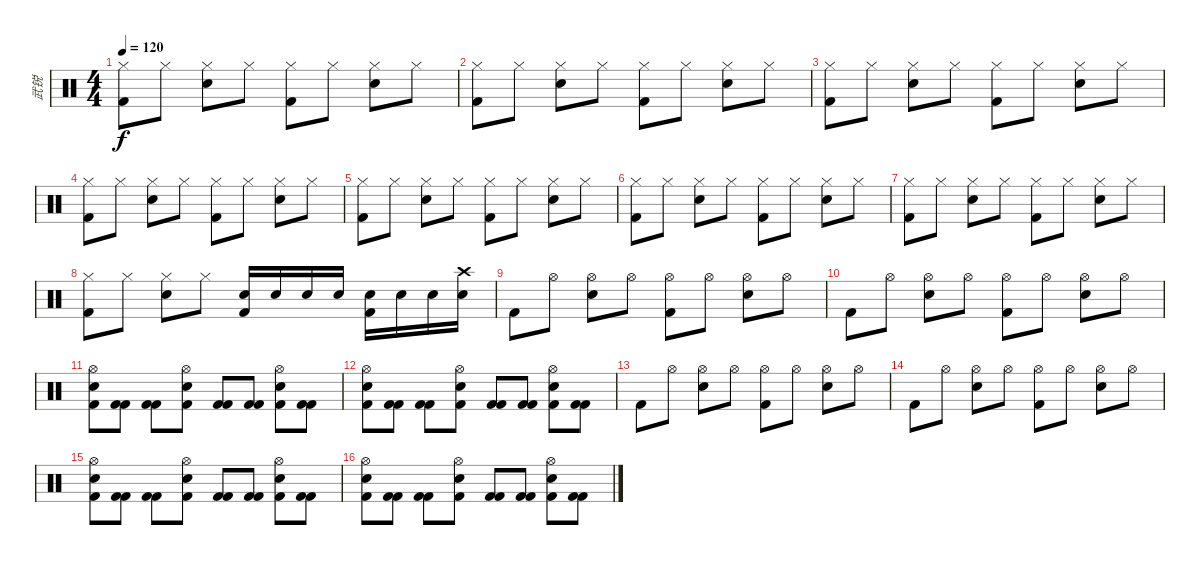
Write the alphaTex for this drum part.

\track ("武锐" "武锐") {instrument percussion}
\staff {score}
\articulation defaults
\ts (4 4)
\tempo 120
\clef neutral
\ks c
("Hi-Hat (closed)" "Kick (hit) 2").8{dy f} "Hi-Hat (closed)".8 ("Hi-Hat (closed)" "Snare (hit) 2").8 "Hi-Hat (closed)".8 ("Hi-Hat (closed)" "Kick (hit) 2").8 "Hi-Hat (closed)".8 ("Hi-Hat (closed)" "Snare (hit) 2").8 "Hi-Hat (closed)".8 |
("Hi-Hat (closed)" "Kick (hit) 2").8 "Hi-Hat (closed)".8 ("Hi-Hat (closed)" "Snare (hit) 2").8 "Hi-Hat (closed)".8 ("Hi-Hat (closed)" "Kick (hit) 2").8 "Hi-Hat (closed)".8 ("Hi-Hat (closed)" "Snare (hit) 2").8 "Hi-Hat (closed)".8 |
("Hi-Hat (closed)" "Kick (hit) 2").8 "Hi-Hat (closed)".8 ("Hi-Hat (closed)" "Snare (hit) 2").8 "Hi-Hat (closed)".8 ("Hi-Hat (closed)" "Kick (hit) 2").8 "Hi-Hat (closed)".8 ("Hi-Hat (closed)" "Snare (hit) 2").8 "Hi-Hat (closed)".8 |
("Hi-Hat (closed)" "Kick (hit) 2").8 "Hi-Hat (closed)".8 ("Hi-Hat (closed)" "Snare (hit) 2").8 "Hi-Hat (closed)".8 ("Hi-Hat (closed)" "Kick (hit) 2").8 "Hi-Hat (closed)".8 ("Hi-Hat (closed)" "Snare (hit) 2").8 "Hi-Hat (closed)".8 |
("Hi-Hat (closed)" "Kick (hit) 2").8 "Hi-Hat (closed)".8 ("Hi-Hat (closed)" "Snare (hit) 2").8 "Hi-Hat (closed)".8 ("Hi-Hat (closed)" "Kick (hit) 2").8 "Hi-Hat (closed)".8 ("Hi-Hat (closed)" "Snare (hit) 2").8 "Hi-Hat (closed)".8 |
("Hi-Hat (closed)" "Kick (hit) 2").8 "Hi-Hat (closed)".8 ("Hi-Hat (closed)" "Snare (hit) 2").8 "Hi-Hat (closed)".8 ("Hi-Hat (closed)" "Kick (hit) 2").8 "Hi-Hat (closed)".8 ("Hi-Hat (closed)" "Snare (hit) 2").8 "Hi-Hat (closed)".8 |
("Hi-Hat (closed)" "Kick (hit) 2").8 "Hi-Hat (closed)".8 ("Hi-Hat (closed)" "Snare (hit) 2").8 "Hi-Hat (closed)".8 ("Hi-Hat (closed)" "Kick (hit) 2").8 "Hi-Hat (closed)".8 ("Hi-Hat (closed)" "Snare (hit) 2").8 "Hi-Hat (closed)".8 |
("Hi-Hat (closed)" "Kick (hit) 2").8 "Hi-Hat (closed)".8 ("Hi-Hat (closed)" "Snare (hit) 2").8 "Hi-Hat (closed)".8 ("Snare (hit) 2" "Kick (hit) 2").16 "Snare (hit) 2".16 "Snare (hit) 2".16 "Snare (hit) 2".16 ("Snare (hit) 2" "Kick (hit) 2").16 "Snare (hit) 2".16 "Snare (hit) 2".16 ("Crash high (hit)" "Snare (hit) 2").16 |
"Kick (hit) 2".8 "Hi-Hat (open)".8 ("Hi-Hat (open)" "Snare (hit) 2").8 "Hi-Hat (open)".8 ("Hi-Hat (open)" "Kick (hit) 2").8 "Hi-Hat (open)".8 ("Hi-Hat (open)" "Snare (hit) 2").8 "Hi-Hat (open)".8 |
"Kick (hit) 2".8 "Hi-Hat (open)".8 ("Hi-Hat (open)" "Snare (hit) 2").8 "Hi-Hat (open)".8 ("Hi-Hat (open)" "Kick (hit) 2").8 "Hi-Hat (open)".8 ("Hi-Hat (open)" "Snare (hit) 2").8 "Hi-Hat (open)".8 |
("Hi-Hat (open)" "Snare (hit) 2" "Kick (hit) 2").8 ("Kick (hit) 2" "Kick (hit) 2").8 ("Kick (hit) 2" "Kick (hit) 2").8 ("Hi-Hat (open)" "Snare (hit) 2" "Kick (hit) 2").8 ("Kick (hit) 2" "Kick (hit) 2").8 ("Kick (hit) 2" "Kick (hit) 2").8 ("Hi-Hat (open)" "Snare (hit) 2" "Kick (hit) 2").8 ("Kick (hit) 2" "Kick (hit) 2").8 |
("Hi-Hat (open)" "Snare (hit) 2" "Kick (hit) 2").8 ("Kick (hit) 2" "Kick (hit) 2").8 ("Kick (hit) 2" "Kick (hit) 2").8 ("Hi-Hat (open)" "Snare (hit) 2" "Kick (hit) 2").8 ("Kick (hit) 2" "Kick (hit) 2").8 ("Kick (hit) 2" "Kick (hit) 2").8 ("Hi-Hat (open)" "Snare (hit) 2" "Kick (hit) 2").8 ("Kick (hit) 2" "Kick (hit) 2").8 |
"Kick (hit) 2".8 "Hi-Hat (open)".8 ("Hi-Hat (open)" "Snare (hit) 2").8 "Hi-Hat (open)".8 ("Hi-Hat (open)" "Kick (hit) 2").8 "Hi-Hat (open)".8 ("Hi-Hat (open)" "Snare (hit) 2").8 "Hi-Hat (open)".8 |
"Kick (hit) 2".8 "Hi-Hat (open)".8 ("Hi-Hat (open)" "Snare (hit) 2").8 "Hi-Hat (open)".8 ("Hi-Hat (open)" "Kick (hit) 2").8 "Hi-Hat (open)".8 ("Hi-Hat (open)" "Snare (hit) 2").8 "Hi-Hat (open)".8 |
("Hi-Hat (open)" "Snare (hit) 2" "Kick (hit) 2").8 ("Kick (hit) 2" "Kick (hit) 2").8 ("Kick (hit) 2" "Kick (hit) 2").8 ("Hi-Hat (open)" "Snare (hit) 2" "Kick (hit) 2").8 ("Kick (hit) 2" "Kick (hit) 2").8 ("Kick (hit) 2" "Kick (hit) 2").8 ("Hi-Hat (open)" "Snare (hit) 2" "Kick (hit) 2").8 ("Kick (hit) 2" "Kick (hit) 2").8 |
("Hi-Hat (open)" "Snare (hit) 2" "Kick (hit) 2").8 ("Kick (hit) 2" "Kick (hit) 2").8 ("Kick (hit) 2" "Kick (hit) 2").8 ("Hi-Hat (open)" "Snare (hit) 2" "Kick (hit) 2").8 ("Kick (hit) 2" "Kick (hit) 2").8 ("Kick (hit) 2" "Kick (hit) 2").8 ("Hi-Hat (open)" "Snare (hit) 2" "Kick (hit) 2").8 ("Kick (hit) 2" "Kick (hit) 2").8
